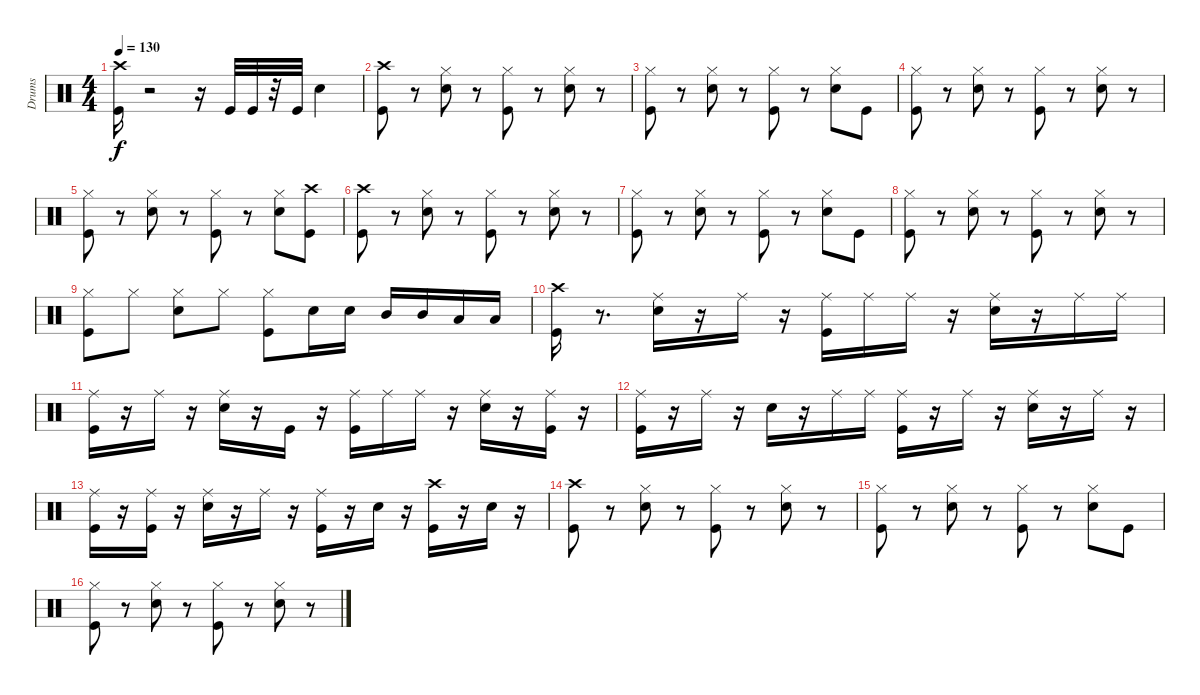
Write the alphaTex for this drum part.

\track ("Drums" "Drums") {instrument percussion}
\staff {score}
\articulation defaults
\ts (4 4)
\tempo 130
\clef neutral
\ks c
("Crash high (hit)" "Kick (hit)").16{dy f} r.2 r.16 "Kick (hit)".32{volume 16} "Kick (hit)".32 r.32 "Kick (hit)".32 "Snare (hit) 2".4 |
("Crash high (hit)" "Kick (hit)").8 r.8 ("Hi-Hat (closed)" "Snare (hit) 2").8 r.8 ("Kick (hit)" "Hi-Hat (closed)").8 r.8 ("Snare (hit) 2" "Hi-Hat (closed)").8 r.8 |
("Hi-Hat (closed)" "Kick (hit)").8 r.8 ("Snare (hit) 2" "Hi-Hat (closed)").8 r.8 ("Kick (hit)" "Hi-Hat (closed)").8 r.8 ("Snare (hit) 2" "Hi-Hat (closed)").8 "Kick (hit)".8 |
("Hi-Hat (closed)" "Kick (hit)").8 r.8 ("Snare (hit) 2" "Hi-Hat (closed)").8 r.8 ("Kick (hit)" "Hi-Hat (closed)").8 r.8 ("Snare (hit) 2" "Hi-Hat (closed)").8 r.8 |
("Hi-Hat (closed)" "Kick (hit)").8 r.8 ("Snare (hit) 2" "Hi-Hat (closed)").8 r.8 ("Kick (hit)" "Hi-Hat (closed)").8 r.8 ("Hi-Hat (closed)" "Snare (hit) 2").8 ("Crash high (hit)" "Kick (hit)").8 |
("Crash high (hit)" "Kick (hit)").8 r.8 ("Snare (hit) 2" "Hi-Hat (closed)").8 r.8 ("Hi-Hat (closed)" "Kick (hit)").8 r.8 ("Snare (hit) 2" "Hi-Hat (closed)").8 r.8 |
("Hi-Hat (closed)" "Kick (hit)").8 r.8 ("Snare (hit) 2" "Hi-Hat (closed)").8 r.8 ("Hi-Hat (closed)" "Kick (hit)").8 r.8 ("Snare (hit) 2" "Hi-Hat (closed)").8 "Kick (hit)".8 |
("Hi-Hat (closed)" "Kick (hit)").8 r.8 ("Snare (hit) 2" "Hi-Hat (closed)").8 r.8 ("Kick (hit)" "Hi-Hat (closed)").8 r.8 ("Snare (hit) 2" "Hi-Hat (closed)").8 r.8 |
("Hi-Hat (closed)" "Kick (hit)").8 "Hi-Hat (closed)".8 ("Snare (hit) 2" "Hi-Hat (closed)").8 "Hi-Hat (closed)".8 ("Hi-Hat (closed)" "Kick (hit)").8 "Snare (hit) 2".16 "Snare (hit) 2".16 "Mid Tom (hit)".16 "Mid Tom (hit)".16 "Low Tom (hit)".16 "Low Tom (hit)".16 |
("Crash high (hit)" "Kick (hit)").16 r.8{d} ("Snare (hit) 2" "Ride (middle)").16 r.16 "Ride (middle)".16 r.16 ("Kick (hit)" "Ride (middle)").16 "Ride (middle)".16 "Ride (middle)".16 r.16 ("Snare (hit) 2" "Ride (middle)").16 r.16 "Ride (middle)".16 "Ride (middle)".16 |
("Kick (hit)" "Ride (middle)").16 r.16 "Ride (middle)".16 r.16 ("Snare (hit) 2" "Ride (middle)").16 r.16 "Kick (hit)".16 r.16 ("Kick (hit)" "Ride (middle)").16 "Ride (middle)".16 "Ride (middle)".16 r.16 ("Snare (hit) 2" "Ride (middle)").16 r.16 ("Kick (hit)" "Ride (middle)").16 r.16 |
("Kick (hit)" "Ride (middle)").16 r.16 "Ride (middle)".16 r.16 "Snare (hit) 2".16 r.16 "Ride (middle)".16 "Ride (middle)".16 ("Kick (hit)" "Ride (middle)").16 r.16 "Ride (middle)".16 r.16 ("Snare (hit) 2" "Ride (middle)").16 r.16 "Ride (middle)".16 r.16 |
("Kick (hit)" "Ride (middle)").16 r.16 ("Kick (hit)" "Ride (middle)").16 r.16 ("Snare (hit) 2" "Ride (middle)").16 r.16 "Ride (middle)".16 r.16 ("Kick (hit)" "Ride (middle)").16 r.16 "Snare (hit) 2".16 r.16 ("Crash high (hit)" "Kick (hit)").16 r.16 "Snare (hit) 2".16 r.16 |
("Crash high (hit)" "Kick (hit)").8 r.8 ("Snare (hit) 2" "Hi-Hat (closed)").8 r.8 ("Kick (hit)" "Hi-Hat (closed)").8 r.8 ("Snare (hit) 2" "Hi-Hat (closed)").8 r.8 |
("Hi-Hat (closed)" "Kick (hit)").8 r.8 ("Snare (hit) 2" "Hi-Hat (closed)").8 r.8 ("Kick (hit)" "Hi-Hat (closed)").8 r.8 ("Snare (hit) 2" "Hi-Hat (closed)").8 "Kick (hit)".8 |
("Hi-Hat (closed)" "Kick (hit)").8 r.8 ("Snare (hit) 2" "Hi-Hat (closed)").8 r.8 ("Kick (hit)" "Hi-Hat (closed)").8 r.8 ("Snare (hit) 2" "Hi-Hat (closed)").8 r.8
